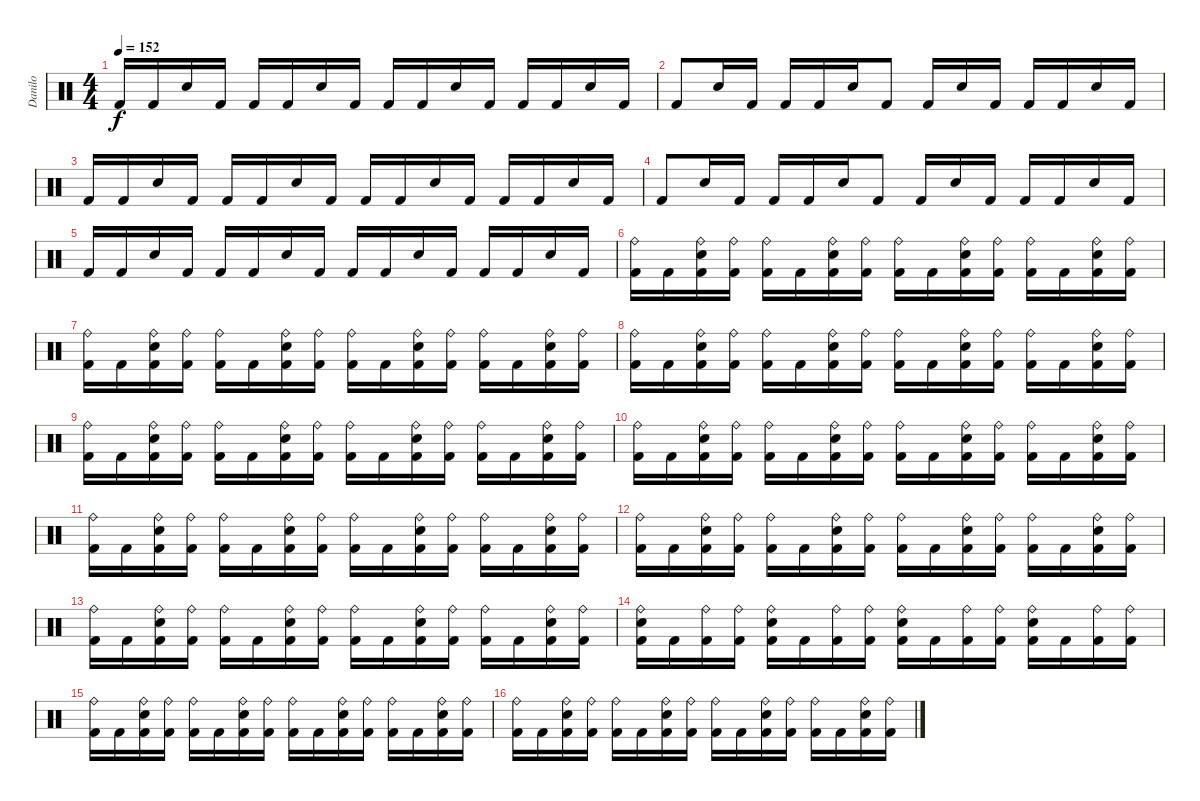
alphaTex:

\track ("Danilo" "Danilo") {instrument percussion}
\staff {score}
\articulation defaults
\ts (4 4)
\tempo 152
\clef neutral
\ks c "Kick (hit) 2".16{dy f} "Kick (hit) 2".16 "Snare (hit) 2".16 "Kick (hit) 2".16 "Kick (hit) 2".16 "Kick (hit) 2".16 "Snare (hit) 2".16 "Kick (hit) 2".16 "Kick (hit) 2".16 "Kick (hit) 2".16 "Snare (hit) 2".16 "Kick (hit) 2".16 "Kick (hit) 2".16 "Kick (hit) 2".16 "Snare (hit) 2".16 "Kick (hit) 2".16
|
"Kick (hit) 2".8 "Snare (hit) 2".16 "Kick (hit) 2".16 "Kick (hit) 2".16 "Kick (hit) 2".16 "Snare (hit) 2".16 "Kick (hit) 2".8 "Kick (hit) 2".16 "Snare (hit) 2".16 "Kick (hit) 2".16 "Kick (hit) 2".16 "Kick (hit) 2".16 "Snare (hit) 2".16 "Kick (hit) 2".16 |
"Kick (hit) 2".16 "Kick (hit) 2".16 "Snare (hit) 2".16 "Kick (hit) 2".16 "Kick (hit) 2".16 "Kick (hit) 2".16 "Snare (hit) 2".16 "Kick (hit) 2".16 "Kick (hit) 2".16 "Kick (hit) 2".16 "Snare (hit) 2".16 "Kick (hit) 2".16 "Kick (hit) 2".16 "Kick (hit) 2".16 "Snare (hit) 2".16 "Kick (hit) 2".16 |
"Kick (hit) 2".8 "Snare (hit) 2".16 "Kick (hit) 2".16 "Kick (hit) 2".16 "Kick (hit) 2".16 "Snare (hit) 2".16 "Kick (hit) 2".8 "Kick (hit) 2".16 "Snare (hit) 2".16 "Kick (hit) 2".16 "Kick (hit) 2".16 "Kick (hit) 2".16 "Snare (hit) 2".16 "Kick (hit) 2".16 |
"Kick (hit) 2".16 "Kick (hit) 2".16 "Snare (hit) 2".16 "Kick (hit) 2".16 "Kick (hit) 2".16 "Kick (hit) 2".16 "Snare (hit) 2".16 "Kick (hit) 2".16 "Kick (hit) 2".16 "Kick (hit) 2".16 "Snare (hit) 2".16 "Kick (hit) 2".16 "Kick (hit) 2".16 "Kick (hit) 2".16 "Snare (hit) 2".16 "Kick (hit) 2".16 |
("Ride (bell)" "Kick (hit) 2").16 "Kick (hit) 2".16 ("Ride (bell)" "Snare (hit) 2" "Kick (hit) 2").16 ("Ride (bell)" "Kick (hit) 2").16 ("Ride (bell)" "Kick (hit) 2").16 "Kick (hit) 2".16 ("Ride (bell)" "Snare (hit) 2" "Kick (hit) 2").16 ("Ride (bell)" "Kick (hit) 2").16 ("Ride (bell)" "Kick (hit) 2").16 "Kick (hit) 2".16 ("Ride (bell)" "Snare (hit) 2" "Kick (hit) 2").16 ("Ride (bell)" "Kick (hit) 2").16 ("Ride (bell)" "Kick (hit) 2").16 "Kick (hit) 2".16 ("Ride (bell)" "Snare (hit) 2" "Kick (hit) 2").16 ("Ride (bell)" "Kick (hit) 2").16 |
("Ride (bell)" "Kick (hit) 2").16 "Kick (hit) 2".16 ("Ride (bell)" "Snare (hit) 2" "Kick (hit) 2").16 ("Ride (bell)" "Kick (hit) 2").16 ("Ride (bell)" "Kick (hit) 2").16 "Kick (hit) 2".16 ("Ride (bell)" "Snare (hit) 2" "Kick (hit) 2").16 ("Ride (bell)" "Kick (hit) 2").16 ("Ride (bell)" "Kick (hit) 2").16 "Kick (hit) 2".16 ("Ride (bell)" "Snare (hit) 2" "Kick (hit) 2").16 ("Ride (bell)" "Kick (hit) 2").16 ("Ride (bell)" "Kick (hit) 2").16 "Kick (hit) 2".16 ("Ride (bell)" "Snare (hit) 2" "Kick (hit) 2").16 ("Ride (bell)" "Kick (hit) 2").16 |
("Ride (bell)" "Kick (hit) 2").16 "Kick (hit) 2".16 ("Ride (bell)" "Snare (hit) 2" "Kick (hit) 2").16 ("Ride (bell)" "Kick (hit) 2").16 ("Ride (bell)" "Kick (hit) 2").16 "Kick (hit) 2".16 ("Ride (bell)" "Snare (hit) 2" "Kick (hit) 2").16 ("Ride (bell)" "Kick (hit) 2").16 ("Ride (bell)" "Kick (hit) 2").16 "Kick (hit) 2".16 ("Ride (bell)" "Snare (hit) 2" "Kick (hit) 2").16 ("Ride (bell)" "Kick (hit) 2").16 ("Ride (bell)" "Kick (hit) 2").16 "Kick (hit) 2".16 ("Ride (bell)" "Snare (hit) 2" "Kick (hit) 2").16 ("Ride (bell)" "Kick (hit) 2").16 |
("Ride (bell)" "Kick (hit) 2").16 "Kick (hit) 2".16 ("Ride (bell)" "Snare (hit) 2" "Kick (hit) 2").16 ("Ride (bell)" "Kick (hit) 2").16 ("Ride (bell)" "Kick (hit) 2").16 "Kick (hit) 2".16 ("Ride (bell)" "Snare (hit) 2" "Kick (hit) 2").16 ("Ride (bell)" "Kick (hit) 2").16 ("Ride (bell)" "Kick (hit) 2").16 "Kick (hit) 2".16 ("Ride (bell)" "Snare (hit) 2" "Kick (hit) 2").16 ("Ride (bell)" "Kick (hit) 2").16 ("Ride (bell)" "Kick (hit) 2").16 "Kick (hit) 2".16 ("Ride (bell)" "Snare (hit) 2" "Kick (hit) 2").16 ("Ride (bell)" "Kick (hit) 2").16 |
("Ride (bell)" "Kick (hit) 2").16 "Kick (hit) 2".16 ("Ride (bell)" "Snare (hit) 2" "Kick (hit) 2").16 ("Ride (bell)" "Kick (hit) 2").16 ("Ride (bell)" "Kick (hit) 2").16 "Kick (hit) 2".16 ("Ride (bell)" "Snare (hit) 2" "Kick (hit) 2").16 ("Ride (bell)" "Kick (hit) 2").16 ("Ride (bell)" "Kick (hit) 2").16 "Kick (hit) 2".16 ("Ride (bell)" "Snare (hit) 2" "Kick (hit) 2").16 ("Ride (bell)" "Kick (hit) 2").16 ("Ride (bell)" "Kick (hit) 2").16 "Kick (hit) 2".16 ("Ride (bell)" "Snare (hit) 2" "Kick (hit) 2").16 ("Ride (bell)" "Kick (hit) 2").16 |
("Ride (bell)" "Kick (hit) 2").16 "Kick (hit) 2".16 ("Ride (bell)" "Snare (hit) 2" "Kick (hit) 2").16 ("Ride (bell)" "Kick (hit) 2").16 ("Ride (bell)" "Kick (hit) 2").16 "Kick (hit) 2".16 ("Ride (bell)" "Snare (hit) 2" "Kick (hit) 2").16 ("Ride (bell)" "Kick (hit) 2").16 ("Ride (bell)" "Kick (hit) 2").16 "Kick (hit) 2".16 ("Ride (bell)" "Snare (hit) 2" "Kick (hit) 2").16 ("Ride (bell)" "Kick (hit) 2").16 ("Ride (bell)" "Kick (hit) 2").16 "Kick (hit) 2".16 ("Ride (bell)" "Snare (hit) 2" "Kick (hit) 2").16 ("Ride (bell)" "Kick (hit) 2").16 |
("Ride (bell)" "Kick (hit) 2").16 "Kick (hit) 2".16 ("Ride (bell)" "Snare (hit) 2" "Kick (hit) 2").16 ("Ride (bell)" "Kick (hit) 2").16 ("Ride (bell)" "Kick (hit) 2").16 "Kick (hit) 2".16 ("Ride (bell)" "Snare (hit) 2" "Kick (hit) 2").16 ("Ride (bell)" "Kick (hit) 2").16 ("Ride (bell)" "Kick (hit) 2").16 "Kick (hit) 2".16 ("Ride (bell)" "Snare (hit) 2" "Kick (hit) 2").16 ("Ride (bell)" "Kick (hit) 2").16 ("Ride (bell)" "Kick (hit) 2").16 "Kick (hit) 2".16 ("Ride (bell)" "Snare (hit) 2" "Kick (hit) 2").16 ("Ride (bell)" "Kick (hit) 2").16 |
("Ride (bell)" "Kick (hit) 2").16 "Kick (hit) 2".16 ("Ride (bell)" "Snare (hit) 2" "Kick (hit) 2").16 ("Ride (bell)" "Kick (hit) 2").16 ("Ride (bell)" "Kick (hit) 2").16 "Kick (hit) 2".16 ("Ride (bell)" "Snare (hit) 2" "Kick (hit) 2").16 ("Ride (bell)" "Kick (hit) 2").16 ("Ride (bell)" "Kick (hit) 2").16 "Kick (hit) 2".16 ("Ride (bell)" "Snare (hit) 2" "Kick (hit) 2").16 ("Ride (bell)" "Kick (hit) 2").16 ("Ride (bell)" "Kick (hit) 2").16 "Kick (hit) 2".16 ("Ride (bell)" "Snare (hit) 2" "Kick (hit) 2").16 ("Ride (bell)" "Kick (hit) 2").16 |
("Ride (bell)" "Snare (hit) 2" "Kick (hit) 2").16 "Kick (hit) 2".16 ("Ride (bell)" "Kick (hit) 2").16 ("Ride (bell)" "Kick (hit) 2").16 ("Ride (bell)" "Snare (hit) 2" "Kick (hit) 2").16 "Kick (hit) 2".16 ("Ride (bell)" "Kick (hit) 2").16 ("Ride (bell)" "Kick (hit) 2").16 ("Ride (bell)" "Snare (hit) 2" "Kick (hit) 2").16 "Kick (hit) 2".16 ("Ride (bell)" "Kick (hit) 2").16 ("Ride (bell)" "Kick (hit) 2").16 ("Ride (bell)" "Snare (hit) 2" "Kick (hit) 2").16 "Kick (hit) 2".16 ("Ride (bell)" "Kick (hit) 2").16 ("Ride (bell)" "Kick (hit) 2").16 |
("Ride (bell)" "Kick (hit) 2").16 "Kick (hit) 2".16 ("Ride (bell)" "Snare (hit) 2" "Kick (hit) 2").16 ("Ride (bell)" "Kick (hit) 2").16 ("Ride (bell)" "Kick (hit) 2").16 "Kick (hit) 2".16 ("Ride (bell)" "Snare (hit) 2" "Kick (hit) 2").16 ("Ride (bell)" "Kick (hit) 2").16 ("Ride (bell)" "Kick (hit) 2").16 "Kick (hit) 2".16 ("Ride (bell)" "Snare (hit) 2" "Kick (hit) 2").16 ("Ride (bell)" "Kick (hit) 2").16 ("Ride (bell)" "Kick (hit) 2").16 "Kick (hit) 2".16 ("Ride (bell)" "Snare (hit) 2" "Kick (hit) 2").16 ("Ride (bell)" "Kick (hit) 2").16 |
("Ride (bell)" "Kick (hit) 2").16 "Kick (hit) 2".16 ("Ride (bell)" "Snare (hit) 2" "Kick (hit) 2").16 ("Ride (bell)" "Kick (hit) 2").16 ("Ride (bell)" "Kick (hit) 2").16 "Kick (hit) 2".16 ("Ride (bell)" "Snare (hit) 2" "Kick (hit) 2").16 ("Ride (bell)" "Kick (hit) 2").16 ("Ride (bell)" "Kick (hit) 2").16 "Kick (hit) 2".16 ("Ride (bell)" "Snare (hit) 2" "Kick (hit) 2").16 ("Ride (bell)" "Kick (hit) 2").16 ("Ride (bell)" "Kick (hit) 2").16 "Kick (hit) 2".16 ("Ride (bell)" "Snare (hit) 2" "Kick (hit) 2").16 ("Ride (bell)" "Kick (hit) 2").16
